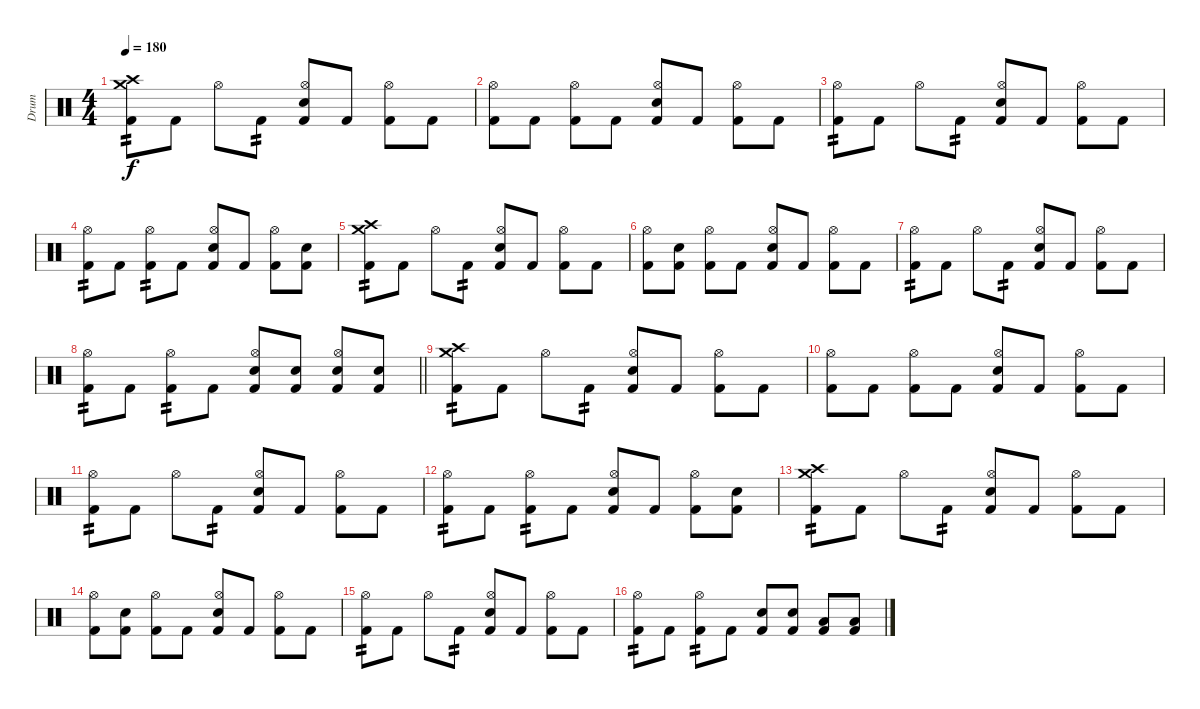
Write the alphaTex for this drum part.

\track ("Drum" "Drum") {instrument percussion}
\staff {score}
\articulation defaults
\ts (4 4)
\tempo 180
\clef neutral
\ks c
("Crash medium (hit)" "Crash high (hit)" "Kick (hit) 2").8{tp 2 dy f} "Kick (hit) 2".8 "Hi-Hat (open)".8 "Kick (hit) 2".8{tp 2} ("Hi-Hat (open)" "Snare (hit) 2" "Kick (hit) 2").8 "Kick (hit) 2".8 ("Hi-Hat (open)" "Kick (hit) 2").8 "Kick (hit) 2".8 |
("Hi-Hat (open)" "Kick (hit) 2").8 "Kick (hit) 2".8 ("Hi-Hat (open)" "Kick (hit) 2").8 "Kick (hit) 2".8 ("Hi-Hat (open)" "Snare (hit) 2" "Kick (hit) 2").8 "Kick (hit) 2".8 ("Hi-Hat (open)" "Kick (hit) 2").8 "Kick (hit) 2".8 |
("Hi-Hat (open)" "Kick (hit) 2").8{tp 2} "Kick (hit) 2".8 "Hi-Hat (open)".8 "Kick (hit) 2".8{tp 2} ("Hi-Hat (open)" "Snare (hit) 2" "Kick (hit) 2").8 "Kick (hit) 2".8 ("Hi-Hat (open)" "Kick (hit) 2").8 "Kick (hit) 2".8 |
("Hi-Hat (open)" "Kick (hit) 2").8{tp 2} "Kick (hit) 2".8 ("Hi-Hat (open)" "Kick (hit) 2").8{tp 2} "Kick (hit) 2".8 ("Hi-Hat (open)" "Snare (hit) 2" "Kick (hit) 2").8 "Kick (hit) 2".8 ("Hi-Hat (open)" "Kick (hit) 2").8 ("Snare (hit) 2" "Kick (hit) 2").8 |
("Crash medium (hit)" "Crash high (hit)" "Kick (hit) 2").8{tp 2} "Kick (hit) 2".8 "Hi-Hat (open)".8 "Kick (hit) 2".8{tp 2} ("Hi-Hat (open)" "Snare (hit) 2" "Kick (hit) 2").8 "Kick (hit) 2".8 ("Hi-Hat (open)" "Kick (hit) 2").8 "Kick (hit) 2".8 |
("Hi-Hat (open)" "Kick (hit) 2").8 ("Snare (hit) 2" "Kick (hit) 2").8 ("Hi-Hat (open)" "Kick (hit) 2").8 "Kick (hit) 2".8 ("Hi-Hat (open)" "Snare (hit) 2" "Kick (hit) 2").8 "Kick (hit) 2".8 ("Hi-Hat (open)" "Kick (hit) 2").8 "Kick (hit) 2".8 |
("Hi-Hat (open)" "Kick (hit) 2").8{tp 2} "Kick (hit) 2".8 "Hi-Hat (open)".8 "Kick (hit) 2".8{tp 2} ("Hi-Hat (open)" "Snare (hit) 2" "Kick (hit) 2").8 "Kick (hit) 2".8 ("Hi-Hat (open)" "Kick (hit) 2").8 "Kick (hit) 2".8 |
\barLineRight lightlight
("Hi-Hat (open)" "Kick (hit) 2").8{tp 2} "Kick (hit) 2".8 ("Hi-Hat (open)" "Kick (hit) 2").8{tp 2} "Kick (hit) 2".8 ("Hi-Hat (open)" "Snare (hit) 2" "Kick (hit) 2").8 ("Snare (hit) 2" "Kick (hit) 2").8 ("Hi-Hat (open)" "Snare (hit) 2" "Kick (hit) 2").8 ("Snare (hit) 2" "Kick (hit) 2").8 |
\section ("" "")
("Crash medium (hit)" "Crash high (hit)" "Kick (hit) 2").8{tp 2} "Kick (hit) 2".8 "Hi-Hat (open)".8 "Kick (hit) 2".8{tp 2} ("Hi-Hat (open)" "Snare (hit) 2" "Kick (hit) 2").8 "Kick (hit) 2".8 ("Hi-Hat (open)" "Kick (hit) 2").8 "Kick (hit) 2".8 |
("Hi-Hat (open)" "Kick (hit) 2").8 "Kick (hit) 2".8 ("Hi-Hat (open)" "Kick (hit) 2").8 "Kick (hit) 2".8 ("Hi-Hat (open)" "Snare (hit) 2" "Kick (hit) 2").8 "Kick (hit) 2".8 ("Hi-Hat (open)" "Kick (hit) 2").8 "Kick (hit) 2".8 |
("Hi-Hat (open)" "Kick (hit) 2").8{tp 2} "Kick (hit) 2".8 "Hi-Hat (open)".8 "Kick (hit) 2".8{tp 2} ("Hi-Hat (open)" "Snare (hit) 2" "Kick (hit) 2").8 "Kick (hit) 2".8 ("Hi-Hat (open)" "Kick (hit) 2").8 "Kick (hit) 2".8 |
("Hi-Hat (open)" "Kick (hit) 2").8{tp 2} "Kick (hit) 2".8 ("Hi-Hat (open)" "Kick (hit) 2").8{tp 2} "Kick (hit) 2".8 ("Hi-Hat (open)" "Snare (hit) 2" "Kick (hit) 2").8 "Kick (hit) 2".8 ("Hi-Hat (open)" "Kick (hit) 2").8 ("Snare (hit) 2" "Kick (hit) 2").8 |
("Crash medium (hit)" "Crash high (hit)" "Kick (hit) 2").8{tp 2} "Kick (hit) 2".8 "Hi-Hat (open)".8 "Kick (hit) 2".8{tp 2} ("Hi-Hat (open)" "Snare (hit) 2" "Kick (hit) 2").8 "Kick (hit) 2".8 ("Hi-Hat (open)" "Kick (hit) 2").8 "Kick (hit) 2".8 |
("Hi-Hat (open)" "Kick (hit) 2").8 ("Snare (hit) 2" "Kick (hit) 2").8 ("Hi-Hat (open)" "Kick (hit) 2").8 "Kick (hit) 2".8 ("Hi-Hat (open)" "Snare (hit) 2" "Kick (hit) 2").8 "Kick (hit) 2".8 ("Hi-Hat (open)" "Kick (hit) 2").8 "Kick (hit) 2".8 |
("Hi-Hat (open)" "Kick (hit) 2").8{tp 2} "Kick (hit) 2".8 "Hi-Hat (open)".8 "Kick (hit) 2".8{tp 2} ("Hi-Hat (open)" "Snare (hit) 2" "Kick (hit) 2").8 "Kick (hit) 2".8 ("Hi-Hat (open)" "Kick (hit) 2").8 "Kick (hit) 2".8 |
("Hi-Hat (open)" "Kick (hit) 2").8{tp 2} "Kick (hit) 2".8 ("Hi-Hat (open)" "Kick (hit) 2").8{tp 2} "Kick (hit) 2".8 ("Snare (hit) 2" "Kick (hit) 2").8 ("Snare (hit) 2" "Kick (hit) 2").8 ("Low Tom (hit)" "Kick (hit) 2").8 ("Low Tom (hit)" "Kick (hit) 2").8
